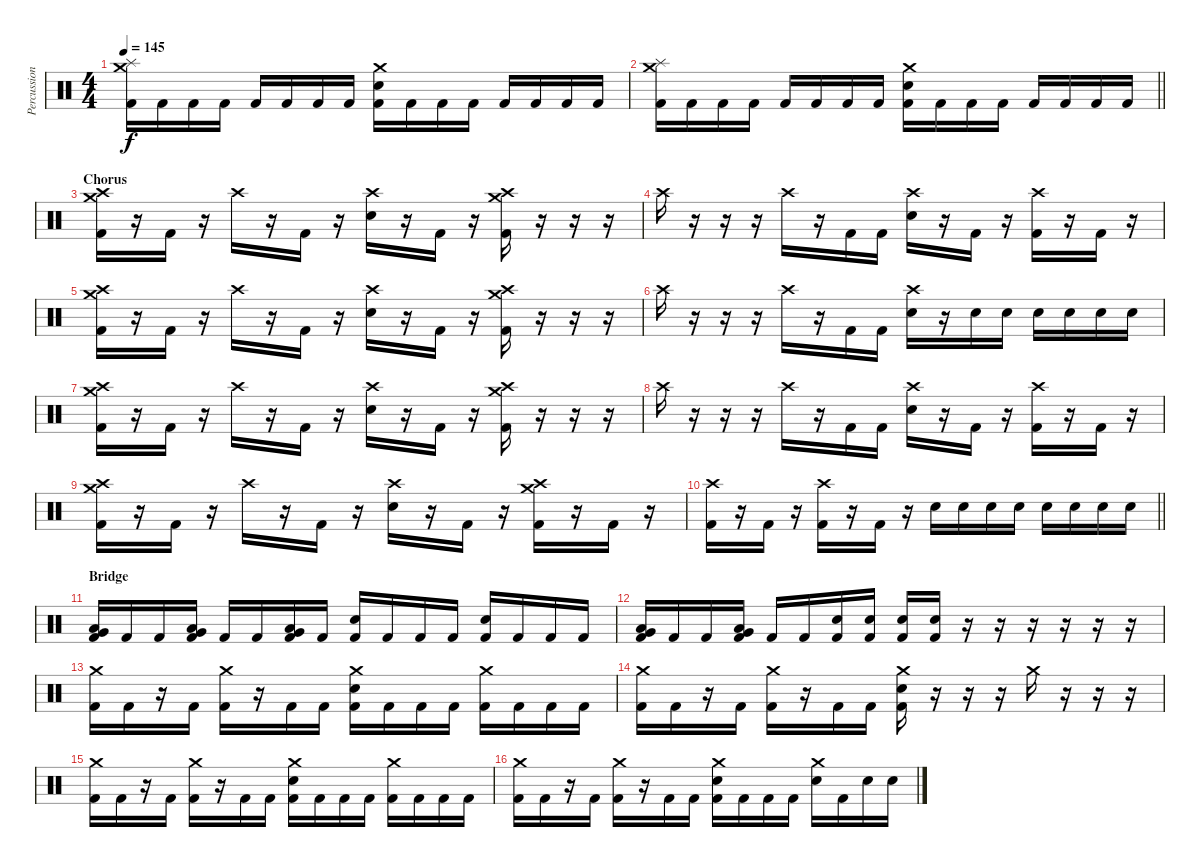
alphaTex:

\track ("Percussion" "Percussion") {instrument percussion}
\staff {score}
\articulation defaults
\ts (4 4)
\tempo 145
\clef neutral
\ks aminor
("Crash medium (hit)" "Splash (hit)" "Kick (hit) 2").16{dy f} "Kick (hit) 2".16 "Kick (hit) 2".16 "Kick (hit) 2".16 "Kick (hit) 2".16 "Kick (hit) 2".16 "Kick (hit) 2".16 "Kick (hit) 2".16 ("Crash medium (hit)" "Electric Snare (hit)" "Kick (hit) 2").16 "Kick (hit) 2".16 "Kick (hit) 2".16 "Kick (hit) 2".16 "Kick (hit) 2".16 "Kick (hit) 2".16 "Kick (hit) 2".16 "Kick (hit) 2".16 |
\barLineRight lightlight
("Crash medium (hit)" "Splash (hit)" "Kick (hit) 2").16 "Kick (hit) 2".16 "Kick (hit) 2".16 "Kick (hit) 2".16 "Kick (hit) 2".16 "Kick (hit) 2".16 "Kick (hit) 2".16 "Kick (hit) 2".16 ("Crash medium (hit)" "Electric Snare (hit)" "Kick (hit) 2").16 "Kick (hit) 2".16 "Kick (hit) 2".16 "Kick (hit) 2".16 "Kick (hit) 2".16 "Kick (hit) 2".16 "Kick (hit) 2".16 "Kick (hit) 2".16 |
\section ("" "Chorus")
("Crash high (hit)" "Crash medium (hit)" "Kick (hit) 2").16 r.16 "Kick (hit) 2".16 r.16 "Crash high (hit)".16 r.16 "Kick (hit) 2".16 r.16 ("Crash high (hit)" "Electric Snare (hit)").16 r.16 "Kick (hit) 2".16 r.16 ("Crash high (hit)" "Crash medium (hit)" "Kick (hit) 2").16 r.16 r.16 r.16 |
"Crash high (hit)".16 r.16 r.16 r.16 "Crash high (hit)".16 r.16 "Kick (hit) 2".16 "Kick (hit) 2".16 ("Crash high (hit)" "Electric Snare (hit)").16 r.16 "Kick (hit) 2".16 r.16 ("Crash high (hit)" "Kick (hit) 2").16 r.16 "Kick (hit) 2".16 r.16 |
("Crash high (hit)" "Crash medium (hit)" "Kick (hit) 2").16 r.16 "Kick (hit) 2".16 r.16 "Crash high (hit)".16 r.16 "Kick (hit) 2".16 r.16 ("Crash high (hit)" "Electric Snare (hit)").16 r.16 "Kick (hit) 2".16 r.16 ("Crash high (hit)" "Crash medium (hit)" "Kick (hit) 2").16 r.16 r.16 r.16 |
"Crash high (hit)".16 r.16 r.16 r.16 "Crash high (hit)".16 r.16 "Kick (hit) 2".16 "Kick (hit) 2".16 ("Crash high (hit)" "Electric Snare (hit)").16 r.16 "Electric Snare (hit)".16 "Electric Snare (hit)".16 "Electric Snare (hit)".16 "Electric Snare (hit)".16 "Electric Snare (hit)".16 "Electric Snare (hit)".16 |
("Crash high (hit)" "Crash medium (hit)" "Kick (hit) 2").16 r.16 "Kick (hit) 2".16 r.16 "Crash high (hit)".16 r.16 "Kick (hit) 2".16 r.16 ("Crash high (hit)" "Electric Snare (hit)").16 r.16 "Kick (hit) 2".16 r.16 ("Crash high (hit)" "Crash medium (hit)" "Kick (hit) 2").16 r.16 r.16 r.16 |
"Crash high (hit)".16 r.16 r.16 r.16 "Crash high (hit)".16 r.16 "Kick (hit) 2".16 "Kick (hit) 2".16 ("Crash high (hit)" "Electric Snare (hit)").16 r.16 "Kick (hit) 2".16 r.16 ("Crash high (hit)" "Kick (hit) 2").16 r.16 "Kick (hit) 2".16 r.16 |
("Crash high (hit)" "Crash medium (hit)" "Kick (hit) 2").16 r.16 "Kick (hit) 2".16 r.16 "Crash high (hit)".16 r.16 "Kick (hit) 2".16 r.16 ("Crash high (hit)" "Electric Snare (hit)").16 r.16 "Kick (hit) 2".16 r.16 ("Crash high (hit)" "Crash medium (hit)" "Kick (hit) 2").16 r.16 "Kick (hit) 2".16 r.16 |
\barLineRight lightlight
("Crash high (hit)" "Kick (hit) 2").16 r.16 "Kick (hit) 2".16 r.16 ("Crash high (hit)" "Kick (hit) 2").16 r.16 "Kick (hit) 2".16 r.16 "Electric Snare (hit)".16 "Electric Snare (hit)".16 "Electric Snare (hit)".16 "Electric Snare (hit)".16 "Electric Snare (hit)".16 "Electric Snare (hit)".16 "Electric Snare (hit)".16 "Electric Snare (hit)".16 |
\section ("" "Bridge")
("Very Low Tom (hit)" "Low Tom (hit)" "Kick (hit) 2").16 "Kick (hit) 2".16 "Kick (hit) 2".16 ("Very Low Tom (hit)" "Low Tom (hit)" "Kick (hit) 2").16 "Kick (hit) 2".16 "Kick (hit) 2".16 ("Very Low Tom (hit)" "Low Tom (hit)" "Kick (hit) 2").16 "Kick (hit) 2".16 ("Electric Snare (hit)" "Kick (hit) 2").16 "Kick (hit) 2".16 "Kick (hit) 2".16 "Kick (hit) 2".16 ("Electric Snare (hit)" "Kick (hit) 2").16 "Kick (hit) 2".16 "Kick (hit) 2".16 "Kick (hit) 2".16 |
("Very Low Tom (hit)" "Low Tom (hit)" "Kick (hit) 2").16 "Kick (hit) 2".16 "Kick (hit) 2".16 ("Very Low Tom (hit)" "Low Tom (hit)" "Kick (hit) 2").16 "Kick (hit) 2".16 "Kick (hit) 2".16 ("Electric Snare (hit)" "Kick (hit) 2").16 ("Electric Snare (hit)" "Kick (hit) 2").16 ("Electric Snare (hit)" "Kick (hit) 2").16 ("Electric Snare (hit)" "Kick (hit) 2").16 r.16 r.16 r.16 r.16 r.16 r.16 |
("Crash medium (hit)" "Kick (hit) 2").16 "Kick (hit) 2".16 r.16 "Kick (hit) 2".16 ("Crash medium (hit)" "Kick (hit) 2").16 r.16 "Kick (hit) 2".16 "Kick (hit) 2".16 ("Crash medium (hit)" "Electric Snare (hit)" "Kick (hit) 2").16 "Kick (hit) 2".16 "Kick (hit) 2".16 "Kick (hit) 2".16 ("Crash medium (hit)" "Kick (hit) 2").16 "Kick (hit) 2".16 "Kick (hit) 2".16 "Kick (hit) 2".16 |
("Crash medium (hit)" "Kick (hit) 2").16 "Kick (hit) 2".16 r.16 "Kick (hit) 2".16 ("Crash medium (hit)" "Kick (hit) 2").16 r.16 "Kick (hit) 2".16 "Kick (hit) 2".16 ("Crash medium (hit)" "Electric Snare (hit)" "Kick (hit) 2").16 r.16 r.16 r.16 "Crash medium (hit)".16 r.16 r.16 r.16 |
("Crash medium (hit)" "Kick (hit) 2").16 "Kick (hit) 2".16 r.16 "Kick (hit) 2".16 ("Crash medium (hit)" "Kick (hit) 2").16 r.16 "Kick (hit) 2".16 "Kick (hit) 2".16 ("Crash medium (hit)" "Electric Snare (hit)" "Kick (hit) 2").16 "Kick (hit) 2".16 "Kick (hit) 2".16 "Kick (hit) 2".16 ("Crash medium (hit)" "Kick (hit) 2").16 "Kick (hit) 2".16 "Kick (hit) 2".16 "Kick (hit) 2".16 |
("Crash medium (hit)" "Kick (hit) 2").16 "Kick (hit) 2".16 r.16 "Kick (hit) 2".16 ("Crash medium (hit)" "Kick (hit) 2").16 r.16 "Kick (hit) 2".16 "Kick (hit) 2".16 ("Crash medium (hit)" "Electric Snare (hit)" "Kick (hit) 2").16 "Kick (hit) 2".16 "Kick (hit) 2".16 "Kick (hit) 2".16 ("Crash medium (hit)" "Electric Snare (hit)").16 "Kick (hit) 2".16 "Electric Snare (hit)".16 "Electric Snare (hit)".16
